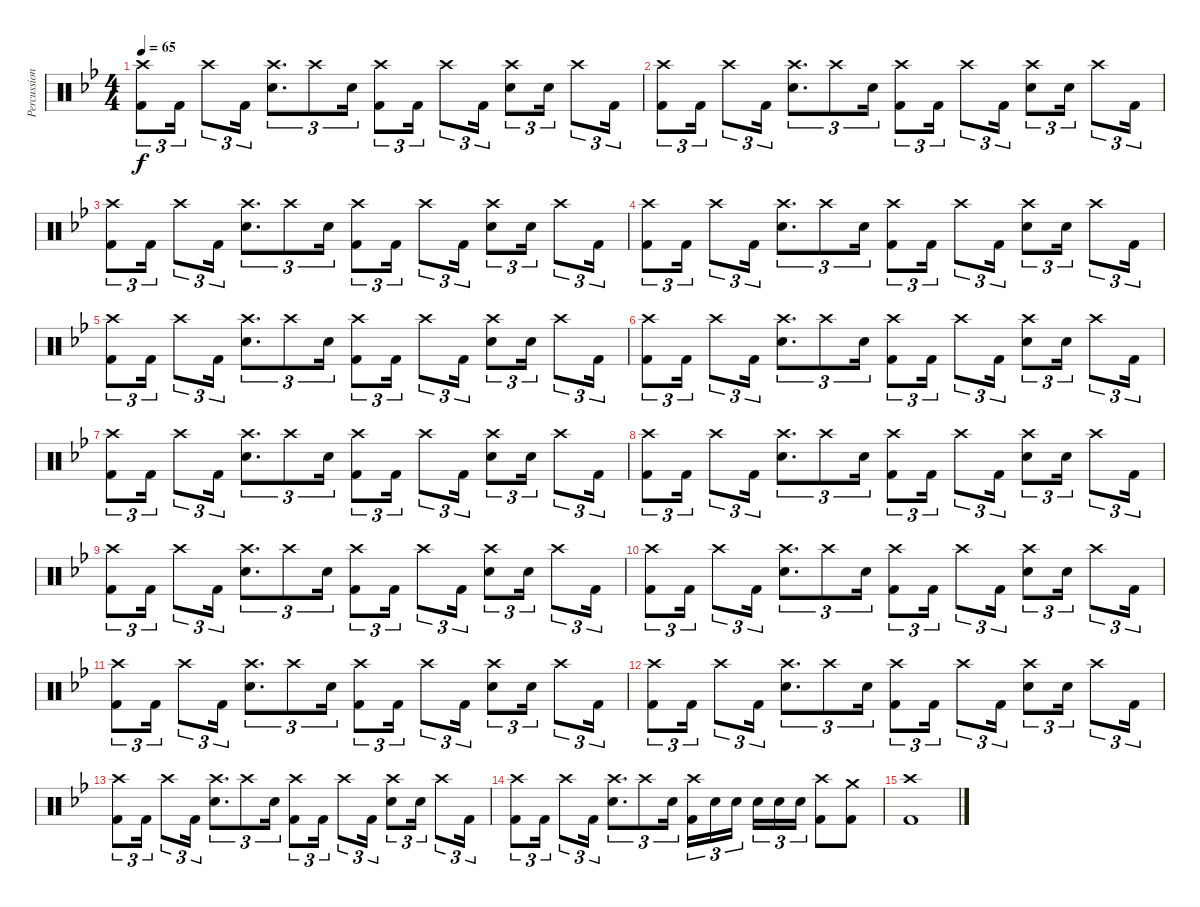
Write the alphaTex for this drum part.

\track ("Percussion" "Percussion") {instrument percussion}
\staff {score}
\articulation defaults
\ts (4 4)
\tempo 65
\clef neutral
\ks bb
("Kick (hit) 2" "Crash high (hit)").8{tu (3 2) dy f} "Kick (hit) 2".16{tu (3 2)} "Crash high (hit)".8{tu (3 2)} "Kick (hit) 2".16{tu (3 2)} ("Snare (hit) 2" "Crash high (hit)").8{d tu (3 2)} "Crash high (hit)".8{tu (3 2)} "Snare (hit) 2".16{tu (3 2)} ("Kick (hit) 2" "Crash high (hit)").8{tu (3 2)} "Kick (hit) 2".16{tu (3 2)} "Crash high (hit)".8{tu (3 2)} "Kick (hit) 2".16{tu (3 2)} ("Crash high (hit)" "Snare (hit) 2").8{tu (3 2)} "Snare (hit) 2".16{tu (3 2)} "Crash high (hit)".8{tu (3 2)} "Kick (hit) 2".16{tu (3 2)} |
("Kick (hit) 2" "Crash high (hit)").8{tu (3 2)} "Kick (hit) 2".16{tu (3 2)} "Crash high (hit)".8{tu (3 2)} "Kick (hit) 2".16{tu (3 2)} ("Snare (hit) 2" "Crash high (hit)").8{d tu (3 2)} "Crash high (hit)".8{tu (3 2)} "Snare (hit) 2".16{tu (3 2)} ("Kick (hit) 2" "Crash high (hit)").8{tu (3 2)} "Kick (hit) 2".16{tu (3 2)} "Crash high (hit)".8{tu (3 2)} "Kick (hit) 2".16{tu (3 2)} ("Crash high (hit)" "Snare (hit) 2").8{tu (3 2)} "Snare (hit) 2".16{tu (3 2)} "Crash high (hit)".8{tu (3 2)} "Kick (hit) 2".16{tu (3 2)} |
("Kick (hit) 2" "Crash high (hit)").8{tu (3 2)} "Kick (hit) 2".16{tu (3 2)} "Crash high (hit)".8{tu (3 2)} "Kick (hit) 2".16{tu (3 2)} ("Snare (hit) 2" "Crash high (hit)").8{d tu (3 2)} "Crash high (hit)".8{tu (3 2)} "Snare (hit) 2".16{tu (3 2)} ("Kick (hit) 2" "Crash high (hit)").8{tu (3 2)} "Kick (hit) 2".16{tu (3 2)} "Crash high (hit)".8{tu (3 2)} "Kick (hit) 2".16{tu (3 2)} ("Crash high (hit)" "Snare (hit) 2").8{tu (3 2)} "Snare (hit) 2".16{tu (3 2)} "Crash high (hit)".8{tu (3 2)} "Kick (hit) 2".16{tu (3 2)} |
("Kick (hit) 2" "Crash high (hit)").8{tu (3 2)} "Kick (hit) 2".16{tu (3 2)} "Crash high (hit)".8{tu (3 2)} "Kick (hit) 2".16{tu (3 2)} ("Snare (hit) 2" "Crash high (hit)").8{d tu (3 2)} "Crash high (hit)".8{tu (3 2)} "Snare (hit) 2".16{tu (3 2)} ("Kick (hit) 2" "Crash high (hit)").8{tu (3 2)} "Kick (hit) 2".16{tu (3 2)} "Crash high (hit)".8{tu (3 2)} "Kick (hit) 2".16{tu (3 2)} ("Crash high (hit)" "Snare (hit) 2").8{tu (3 2)} "Snare (hit) 2".16{tu (3 2)} "Crash high (hit)".8{tu (3 2)} "Kick (hit) 2".16{tu (3 2)} |
("Kick (hit) 2" "Crash high (hit)").8{tu (3 2)} "Kick (hit) 2".16{tu (3 2)} "Crash high (hit)".8{tu (3 2)} "Kick (hit) 2".16{tu (3 2)} ("Snare (hit) 2" "Crash high (hit)").8{d tu (3 2)} "Crash high (hit)".8{tu (3 2)} "Snare (hit) 2".16{tu (3 2)} ("Kick (hit) 2" "Crash high (hit)").8{tu (3 2)} "Kick (hit) 2".16{tu (3 2)} "Crash high (hit)".8{tu (3 2)} "Kick (hit) 2".16{tu (3 2)} ("Crash high (hit)" "Snare (hit) 2").8{tu (3 2)} "Snare (hit) 2".16{tu (3 2)} "Crash high (hit)".8{tu (3 2)} "Kick (hit) 2".16{tu (3 2)} |
("Kick (hit) 2" "Crash high (hit)").8{tu (3 2)} "Kick (hit) 2".16{tu (3 2)} "Crash high (hit)".8{tu (3 2)} "Kick (hit) 2".16{tu (3 2)} ("Snare (hit) 2" "Crash high (hit)").8{d tu (3 2)} "Crash high (hit)".8{tu (3 2)} "Snare (hit) 2".16{tu (3 2)} ("Kick (hit) 2" "Crash high (hit)").8{tu (3 2)} "Kick (hit) 2".16{tu (3 2)} "Crash high (hit)".8{tu (3 2)} "Kick (hit) 2".16{tu (3 2)} ("Crash high (hit)" "Snare (hit) 2").8{tu (3 2)} "Snare (hit) 2".16{tu (3 2)} "Crash high (hit)".8{tu (3 2)} "Kick (hit) 2".16{tu (3 2)} |
("Kick (hit) 2" "Crash high (hit)").8{tu (3 2)} "Kick (hit) 2".16{tu (3 2)} "Crash high (hit)".8{tu (3 2)} "Kick (hit) 2".16{tu (3 2)} ("Snare (hit) 2" "Crash high (hit)").8{d tu (3 2)} "Crash high (hit)".8{tu (3 2)} "Snare (hit) 2".16{tu (3 2)} ("Kick (hit) 2" "Crash high (hit)").8{tu (3 2)} "Kick (hit) 2".16{tu (3 2)} "Crash high (hit)".8{tu (3 2)} "Kick (hit) 2".16{tu (3 2)} ("Crash high (hit)" "Snare (hit) 2").8{tu (3 2)} "Snare (hit) 2".16{tu (3 2)} "Crash high (hit)".8{tu (3 2)} "Kick (hit) 2".16{tu (3 2)} |
("Kick (hit) 2" "Crash high (hit)").8{tu (3 2)} "Kick (hit) 2".16{tu (3 2)} "Crash high (hit)".8{tu (3 2)} "Kick (hit) 2".16{tu (3 2)} ("Snare (hit) 2" "Crash high (hit)").8{d tu (3 2)} "Crash high (hit)".8{tu (3 2)} "Snare (hit) 2".16{tu (3 2)} ("Kick (hit) 2" "Crash high (hit)").8{tu (3 2)} "Kick (hit) 2".16{tu (3 2)} "Crash high (hit)".8{tu (3 2)} "Kick (hit) 2".16{tu (3 2)} ("Crash high (hit)" "Snare (hit) 2").8{tu (3 2)} "Snare (hit) 2".16{tu (3 2)} "Crash high (hit)".8{tu (3 2)} "Kick (hit) 2".16{tu (3 2)} |
("Kick (hit) 2" "Crash high (hit)").8{tu (3 2)} "Kick (hit) 2".16{tu (3 2)} "Crash high (hit)".8{tu (3 2)} "Kick (hit) 2".16{tu (3 2)} ("Snare (hit) 2" "Crash high (hit)").8{d tu (3 2)} "Crash high (hit)".8{tu (3 2)} "Snare (hit) 2".16{tu (3 2)} ("Kick (hit) 2" "Crash high (hit)").8{tu (3 2)} "Kick (hit) 2".16{tu (3 2)} "Crash high (hit)".8{tu (3 2)} "Kick (hit) 2".16{tu (3 2)} ("Crash high (hit)" "Snare (hit) 2").8{tu (3 2)} "Snare (hit) 2".16{tu (3 2)} "Crash high (hit)".8{tu (3 2)} "Kick (hit) 2".16{tu (3 2)} |
("Kick (hit) 2" "Crash high (hit)").8{tu (3 2)} "Kick (hit) 2".16{tu (3 2)} "Crash high (hit)".8{tu (3 2)} "Kick (hit) 2".16{tu (3 2)} ("Snare (hit) 2" "Crash high (hit)").8{d tu (3 2)} "Crash high (hit)".8{tu (3 2)} "Snare (hit) 2".16{tu (3 2)} ("Kick (hit) 2" "Crash high (hit)").8{tu (3 2)} "Kick (hit) 2".16{tu (3 2)} "Crash high (hit)".8{tu (3 2)} "Kick (hit) 2".16{tu (3 2)} ("Crash high (hit)" "Snare (hit) 2").8{tu (3 2)} "Snare (hit) 2".16{tu (3 2)} "Crash high (hit)".8{tu (3 2)} "Kick (hit) 2".16{tu (3 2)} |
("Kick (hit) 2" "Crash high (hit)").8{tu (3 2)} "Kick (hit) 2".16{tu (3 2)} "Crash high (hit)".8{tu (3 2)} "Kick (hit) 2".16{tu (3 2)} ("Snare (hit) 2" "Crash high (hit)").8{d tu (3 2)} "Crash high (hit)".8{tu (3 2)} "Snare (hit) 2".16{tu (3 2)} ("Kick (hit) 2" "Crash high (hit)").8{tu (3 2)} "Kick (hit) 2".16{tu (3 2)} "Crash high (hit)".8{tu (3 2)} "Kick (hit) 2".16{tu (3 2)} ("Crash high (hit)" "Snare (hit) 2").8{tu (3 2)} "Snare (hit) 2".16{tu (3 2)} "Crash high (hit)".8{tu (3 2)} "Kick (hit) 2".16{tu (3 2)} |
("Kick (hit) 2" "Crash high (hit)").8{tu (3 2)} "Kick (hit) 2".16{tu (3 2)} "Crash high (hit)".8{tu (3 2)} "Kick (hit) 2".16{tu (3 2)} ("Snare (hit) 2" "Crash high (hit)").8{d tu (3 2)} "Crash high (hit)".8{tu (3 2)} "Snare (hit) 2".16{tu (3 2)} ("Kick (hit) 2" "Crash high (hit)").8{tu (3 2)} "Kick (hit) 2".16{tu (3 2)} "Crash high (hit)".8{tu (3 2)} "Kick (hit) 2".16{tu (3 2)} ("Crash high (hit)" "Snare (hit) 2").8{tu (3 2)} "Snare (hit) 2".16{tu (3 2)} "Crash high (hit)".8{tu (3 2)} "Kick (hit) 2".16{tu (3 2)} |
("Kick (hit) 2" "Crash high (hit)").8{tu (3 2)} "Kick (hit) 2".16{tu (3 2)} "Crash high (hit)".8{tu (3 2)} "Kick (hit) 2".16{tu (3 2)} ("Snare (hit) 2" "Crash high (hit)").8{d tu (3 2)} "Crash high (hit)".8{tu (3 2)} "Snare (hit) 2".16{tu (3 2)} ("Kick (hit) 2" "Crash high (hit)").8{tu (3 2)} "Kick (hit) 2".16{tu (3 2)} "Crash high (hit)".8{tu (3 2)} "Kick (hit) 2".16{tu (3 2)} ("Crash high (hit)" "Snare (hit) 2").8{tu (3 2)} "Snare (hit) 2".16{tu (3 2)} "Crash high (hit)".8{tu (3 2)} "Kick (hit) 2".16{tu (3 2)} |
("Kick (hit) 2" "Crash high (hit)").8{tu (3 2)} "Kick (hit) 2".16{tu (3 2)} "Crash high (hit)".8{tu (3 2)} "Kick (hit) 2".16{tu (3 2)} ("Snare (hit) 2" "Crash high (hit)").8{d tu (3 2)} "Crash high (hit)".8{tu (3 2)} "Snare (hit) 2".16{tu (3 2)} ("Kick (hit) 2" "Crash high (hit)").16{tu (3 2)} "Snare (hit) 2".16{tu (3 2)} "Snare (hit) 2".16{tu (3 2) beam splitsecondary} "Snare (hit) 2".16{tu (3 2)} "Snare (hit) 2".16{tu (3 2)} "Snare (hit) 2".16{tu (3 2)} ("Kick (hit) 2" "Crash high (hit)").8 ("Kick (hit) 2" "Crash medium (hit)").8 |
("Kick (hit) 2" "Crash high (hit)").1
